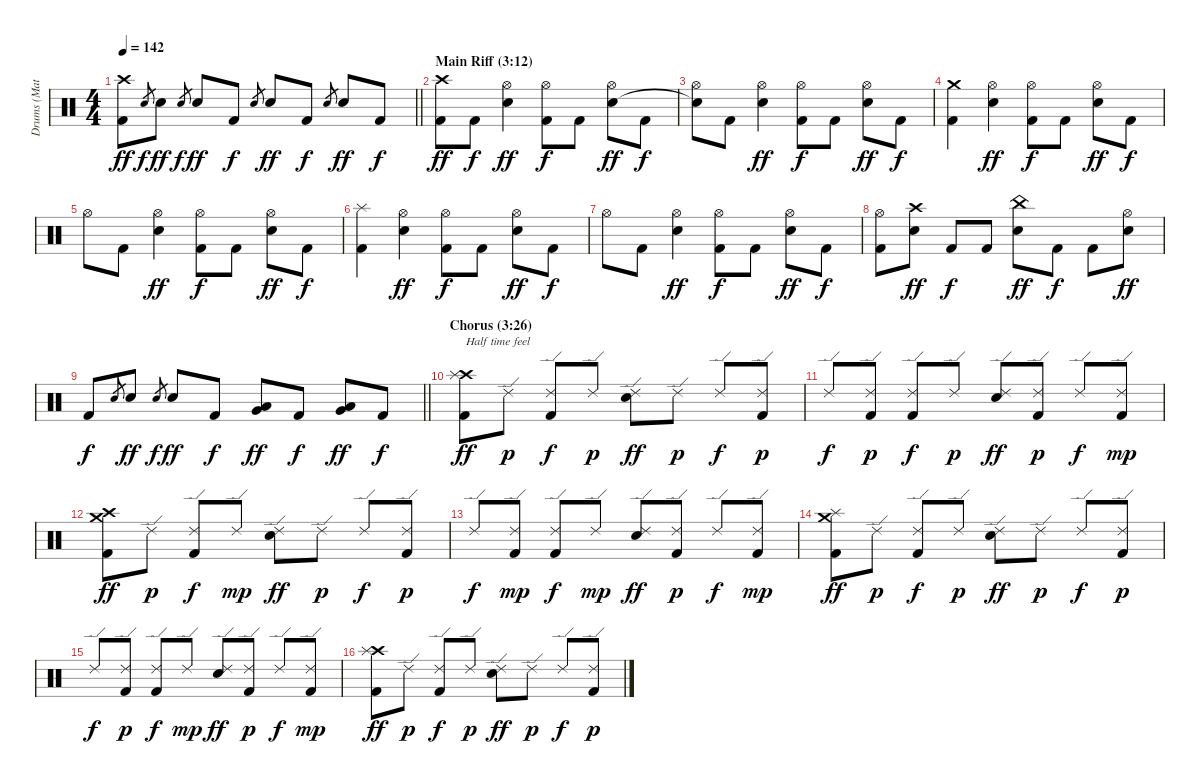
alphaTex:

\track ("Drums (Matt Sorum)" "Drums (Mat") {instrument percussion}
\staff {score}
\articulation defaults
\ts (4 4)
\tempo 142
\clef neutral
\barLineRight lightlight
\ks c
("Crash high (hit)" "Kick (hit) 2").8{dy ff} "Snare (hit) 2".8{gr dy f} "Snare (hit) 2".8{dy ff} "Snare (hit) 2".8{gr dy f} "Snare (hit) 2".8{dy ff} "Kick (hit) 2".8{dy f} "Snare (hit) 2".8{gr} "Snare (hit) 2".8{dy ff} "Kick (hit) 2".8{dy f} "Snare (hit) 2".8{gr} "Snare (hit) 2".8{dy ff} "Kick (hit) 2".8{dy f} |
\section ("" "Main Riff (3:12)")
("Crash high (hit)" "Kick (hit) 2").8{dy ff} "Kick (hit) 2".8{dy f} ("Hi-Hat (open)" "Snare (hit) 2").4{dy ff} ("Hi-Hat (open)" "Kick (hit) 2").8{dy f} "Kick (hit) 2".8 ("Hi-Hat (open)" "Snare (hit) 2").8{dy ff} "Kick (hit) 2".8{dy f} |
("Hi-Hat (open)" "Snare (hit)"{t}).8 "Kick (hit) 2".8 ("Hi-Hat (open)" "Snare (hit) 2").4{dy ff} ("Hi-Hat (open)" "Kick (hit) 2").8{dy f} "Kick (hit) 2".8 ("Hi-Hat (open)" "Snare (hit) 2").8{dy ff} "Kick (hit) 2".8{dy f} |
("Crash medium (hit)" "Kick (hit) 2").4 ("Hi-Hat (open)" "Snare (hit) 2").4{dy ff} ("Hi-Hat (open)" "Kick (hit) 2").8{dy f} "Kick (hit) 2".8 ("Hi-Hat (open)" "Snare (hit) 2").8{dy ff} "Kick (hit) 2".8{dy f} |
"Hi-Hat (open)".8 "Kick (hit) 2".8 ("Hi-Hat (open)" "Snare (hit) 2").4{dy ff} ("Hi-Hat (open)" "Kick (hit) 2").8{dy f} "Kick (hit) 2".8 ("Hi-Hat (open)" "Snare (hit) 2").8{dy ff} "Kick (hit) 2".8{dy f} |
("Splash (hit)" "Kick (hit) 2").4 ("Hi-Hat (open)" "Snare (hit) 2").4{dy ff} ("Hi-Hat (open)" "Kick (hit) 2").8{dy f} "Kick (hit) 2".8 ("Hi-Hat (open)" "Snare (hit) 2").8{dy ff} "Kick (hit) 2".8{dy f} |
"Hi-Hat (open)".8 "Kick (hit) 2".8 ("Hi-Hat (open)" "Snare (hit) 2").4{dy ff} ("Hi-Hat (open)" "Kick (hit) 2").8{dy f} "Kick (hit) 2".8 ("Hi-Hat (open)" "Snare (hit) 2").8{dy ff} "Kick (hit) 2".8{dy f} |
("Hi-Hat (open)" "Kick (hit) 2").8 ("Crash high (hit)" "Snare (hit) 2").8{dy ff} "Kick (hit) 2".8{dy f} "Kick (hit) 2".8 ("China (hit)" "Snare (hit) 2").8{dy ff} "Kick (hit) 2".8{dy f} "Kick (hit) 2".8 ("Hi-Hat (open)" "Snare (hit) 2").8{dy ff} |
\barLineRight lightlight "Kick (hit) 2".8{dy f} "Snare (hit) 2".8{gr} "Snare (hit) 2".8{dy ff} "Snare (hit) 2".8{gr dy f} "Snare (hit) 2".8{dy ff} "Kick (hit) 2".8{dy f}
("Low Tom (hit)" "Very Low Tom (hit)").8{dy ff} "Kick (hit) 2".8{dy f} ("Low Floor Tom (hit)" "Very Low Tom (hit)").8{dy ff} "Kick (hit) 2".8{dy f} |
\section ("" "Chorus (3:26)")
("Crash high (hit)" "Splash (hit)" "Kick (hit) 2").8{txt "Half time feel" dy ff} "Ride (edge) 2".8{dy p} ("Ride (edge) 2" "Kick (hit) 2").8{dy f} "Ride (edge) 2".8{dy p} ("Ride (edge) 2" "Snare (hit) 2").8{dy ff} "Ride (edge) 2".8{dy p} "Ride (edge) 2".8{dy f} ("Ride (edge) 2" "Kick (hit) 2").8{dy p} |
"Ride (edge) 2".8{dy f} ("Ride (edge) 2" "Kick (hit) 2").8{dy p} ("Ride (edge) 2" "Kick (hit) 2").8{dy f} "Ride (edge) 2".8{dy p} ("Ride (edge) 2" "Snare (hit) 2").8{dy ff} ("Ride (edge) 2" "Kick (hit) 2").8{dy p} "Ride (edge) 2".8{dy f} ("Ride (edge) 2" "Kick (hit) 2").8{dy mp} |
("Crash high (hit)" "Crash medium (hit)" "Kick (hit) 2").8{dy ff} "Ride (edge) 2".8{dy p} ("Ride (edge) 2" "Kick (hit) 2").8{dy f} "Ride (edge) 2".8{dy mp} ("Ride (edge) 2" "Snare (hit) 2").8{dy ff} "Ride (edge) 2".8{dy p} "Ride (edge) 2".8{dy f} ("Ride (edge) 2" "Kick (hit) 2").8{dy p} |
"Ride (edge) 2".8{dy f} ("Ride (edge) 2" "Kick (hit) 2").8{dy mp} ("Ride (edge) 2" "Kick (hit) 2").8{dy f} "Ride (edge) 2".8{dy mp} ("Ride (edge) 2" "Snare (hit) 2").8{dy ff} ("Ride (edge) 2" "Kick (hit) 2").8{dy p} "Ride (edge) 2".8{dy f} ("Ride (edge) 2" "Kick (hit) 2").8{dy mp} |
("Crash medium (hit)" "Splash (hit)" "Kick (hit) 2").8{dy ff} "Ride (edge) 2".8{dy p} ("Ride (edge) 2" "Kick (hit) 2").8{dy f} "Ride (edge) 2".8{dy p} ("Ride (edge) 2" "Snare (hit) 2").8{dy ff} "Ride (edge) 2".8{dy p} "Ride (edge) 2".8{dy f} ("Ride (edge) 2" "Kick (hit) 2").8{dy p} |
"Ride (edge) 2".8{dy f} ("Ride (edge) 2" "Kick (hit) 2").8{dy p} ("Ride (edge) 2" "Kick (hit) 2").8{dy f} "Ride (edge) 2".8{dy mp} ("Ride (edge) 2" "Snare (hit) 2").8{dy ff} ("Ride (edge) 2" "Kick (hit) 2").8{dy p} "Ride (edge) 2".8{dy f} ("Ride (edge) 2" "Kick (hit) 2").8{dy mp} |
("Crash high (hit)" "Splash (hit)" "Kick (hit) 2").8{dy ff} "Ride (edge) 2".8{dy p} ("Ride (edge) 2" "Kick (hit) 2").8{dy f} "Ride (edge) 2".8{dy p} ("Ride (edge) 2" "Snare (hit) 2").8{dy ff} "Ride (edge) 2".8{dy p} "Ride (edge) 2".8{dy f} ("Ride (edge) 2" "Kick (hit) 2").8{dy p}
